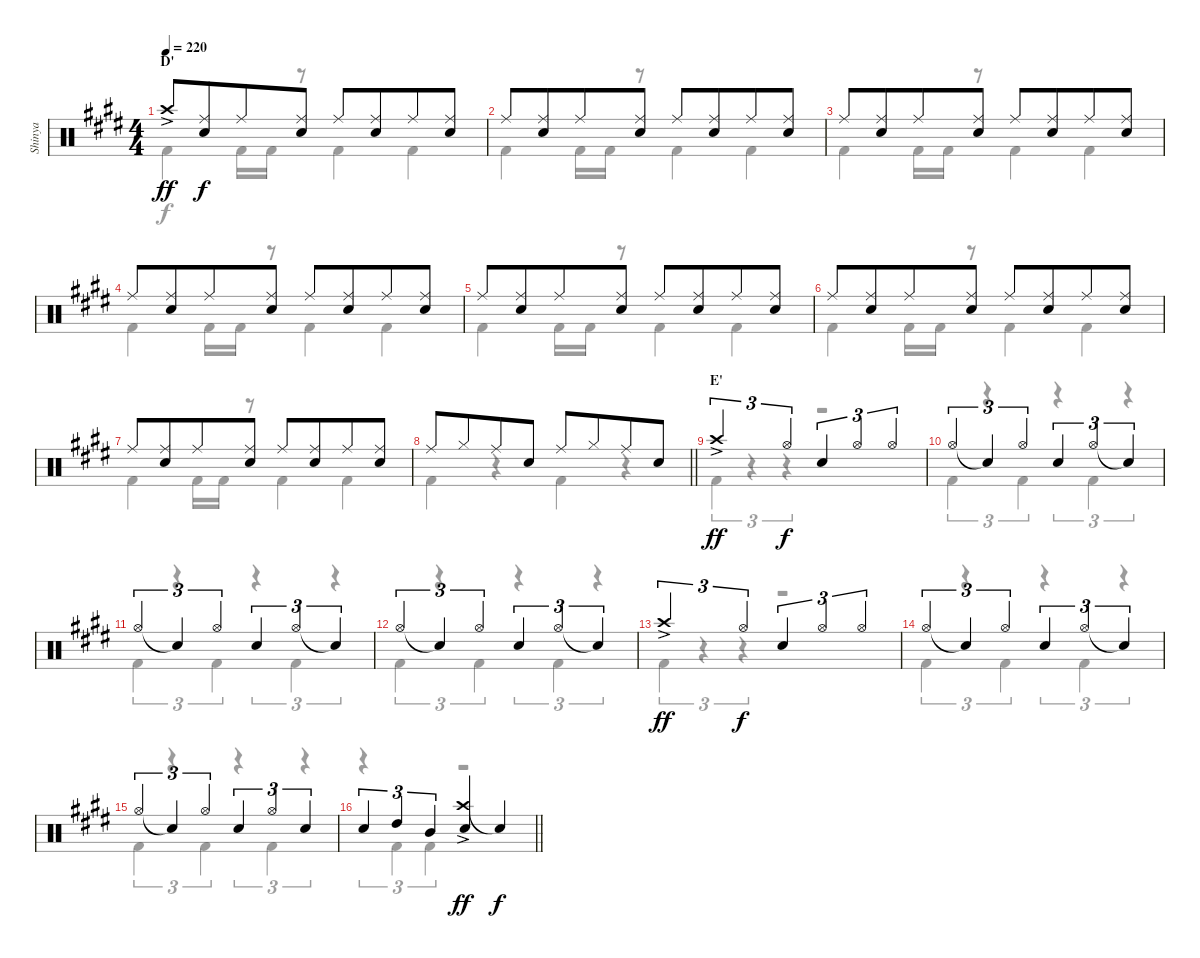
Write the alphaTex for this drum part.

\track ("Shinya" "Shinya") {instrument percussion}
\staff {score}
\articulation defaults
\voice
\ts (4 4)
\section ("" "D'")
\tempo 220
\clef neutral
\ks c#minor "Crash high (hit)"{ac}.8{dy ff}
("Ride (middle)" "Snare (hit) 2").8{dy f beam merge} "Ride (middle)".8 ("Ride (middle)" "Snare (hit) 2").8 "Ride (middle)".8 ("Ride (middle)" "Snare (hit) 2").8{beam merge} "Ride (middle)".8 ("Ride (middle)" "Snare (hit) 2").8 |
"Ride (middle)".8 ("Ride (middle)" "Snare (hit) 2").8{beam merge} "Ride (middle)".8 ("Ride (middle)" "Snare (hit) 2").8 "Ride (middle)".8 ("Ride (middle)" "Snare (hit) 2").8{beam merge} "Ride (middle)".8 ("Ride (middle)" "Snare (hit) 2").8 |
"Ride (middle)".8 ("Ride (middle)" "Snare (hit) 2").8{beam merge} "Ride (middle)".8 ("Ride (middle)" "Snare (hit) 2").8 "Ride (middle)".8 ("Ride (middle)" "Snare (hit) 2").8{beam merge} "Ride (middle)".8 ("Ride (middle)" "Snare (hit) 2").8 |
"Ride (middle)".8 ("Ride (middle)" "Snare (hit) 2").8{beam merge} "Ride (middle)".8 ("Ride (middle)" "Snare (hit) 2").8 "Ride (middle)".8 ("Ride (middle)" "Snare (hit) 2").8{beam merge} "Ride (middle)".8 ("Ride (middle)" "Snare (hit) 2").8 |
"Ride (middle)".8 ("Ride (middle)" "Snare (hit) 2").8{beam merge} "Ride (middle)".8 ("Ride (middle)" "Snare (hit) 2").8 "Ride (middle)".8 ("Ride (middle)" "Snare (hit) 2").8{beam merge} "Ride (middle)".8 ("Ride (middle)" "Snare (hit) 2").8 |
"Ride (middle)".8 ("Ride (middle)" "Snare (hit) 2").8{beam merge} "Ride (middle)".8 ("Ride (middle)" "Snare (hit) 2").8 "Ride (middle)".8 ("Ride (middle)" "Snare (hit) 2").8{beam merge} "Ride (middle)".8 ("Ride (middle)" "Snare (hit) 2").8 |
"Ride (middle)".8 ("Ride (middle)" "Snare (hit) 2").8{beam merge} "Ride (middle)".8 ("Ride (middle)" "Snare (hit) 2").8 "Ride (middle)".8 ("Ride (middle)" "Snare (hit) 2").8{beam merge} "Ride (middle)".8 ("Ride (middle)" "Snare (hit) 2").8 |
\barLineRight lightlight "Ride (middle)".8 "Hi-Hat (closed)".8{beam merge} "Ride (middle)".8 "Snare (hit) 2".8 "Ride (middle)".8 "Hi-Hat (closed)".8{beam merge} "Ride (middle)".8 "Snare (hit) 2".8
|
\section ("" "E'")
"Crash high (hit)"{ac}.2{tu (3 2) dy ff} "Hi-Hat (open)".4{tu (3 2) dy f} "Snare (hit) 2".4{tu (3 2)} "Hi-Hat (open)".4{tu (3 2)} "Hi-Hat (open)".4{tu (3 2)} |
"Hi-Hat (open)".4{tu (3 2)} "Snare (hit)"{t}.4{tu (3 2)} "Hi-Hat (open)".4{tu (3 2)} "Snare (hit) 2".4{tu (3 2)} "Hi-Hat (open)".4{tu (3 2)} "Snare (hit)"{t}.4{tu (3 2)} |
"Hi-Hat (open)".4{tu (3 2)} "Snare (hit)"{t}.4{tu (3 2)} "Hi-Hat (open)".4{tu (3 2)} "Snare (hit) 2".4{tu (3 2)} "Hi-Hat (open)".4{tu (3 2)} "Snare (hit)"{t}.4{tu (3 2)} |
"Hi-Hat (open)".4{tu (3 2)} "Snare (hit)"{t}.4{tu (3 2)} "Hi-Hat (open)".4{tu (3 2)} "Snare (hit) 2".4{tu (3 2)} "Hi-Hat (open)".4{tu (3 2)} "Snare (hit)"{t}.4{tu (3 2)} |
"Crash high (hit)"{ac}.2{tu (3 2) dy ff} "Hi-Hat (open)".4{tu (3 2) dy f} "Snare (hit) 2".4{tu (3 2)} "Hi-Hat (open)".4{tu (3 2)} "Hi-Hat (open)".4{tu (3 2)} |
"Hi-Hat (open)".4{tu (3 2)} "Snare (hit)"{t}.4{tu (3 2)} "Hi-Hat (open)".4{tu (3 2)} "Snare (hit) 2".4{tu (3 2)} "Hi-Hat (open)".4{tu (3 2)} "Snare (hit)"{t}.4{tu (3 2)} |
"Hi-Hat (open)".4{tu (3 2)} "Snare (hit)"{t}.4{tu (3 2)} "Hi-Hat (open)".4{tu (3 2)} "Snare (hit) 2".4{tu (3 2)} "Hi-Hat (open)".4{tu (3 2)} "Snare (hit) 2".4{tu (3 2)} |
\barLineRight lightlight "Snare (hit) 2".4{tu (3 2)} "High Tom (hit)".4{tu (3 2)} "Mid Tom (hit)".4{tu (3 2)}
("Crash high (hit)"{ac} "Snare (hit) 2").4{dy ff} "Snare (hit)"{t}.4{dy f}
\voice
\clef neutral
\ottava regular
\simile none
\ks c#minor "Kick (hit) 2".4{dy f} "Kick (hit) 2".16 "Kick (hit) 2".16
r.8 "Kick (hit) 2".4 "Kick (hit) 2".4 |
"Kick (hit) 2".4 "Kick (hit) 2".16 "Kick (hit) 2".16 r.8 "Kick (hit) 2".4 "Kick (hit) 2".4 |
"Kick (hit) 2".4 "Kick (hit) 2".16 "Kick (hit) 2".16 r.8 "Kick (hit) 2".4 "Kick (hit) 2".4 |
"Kick (hit) 2".4 "Kick (hit) 2".16 "Kick (hit) 2".16 r.8 "Kick (hit) 2".4 "Kick (hit) 2".4 |
"Kick (hit) 2".4 "Kick (hit) 2".16 "Kick (hit) 2".16 r.8 "Kick (hit) 2".4 "Kick (hit) 2".4 |
"Kick (hit) 2".4 "Kick (hit) 2".16 "Kick (hit) 2".16 r.8 "Kick (hit) 2".4 "Kick (hit) 2".4 |
"Kick (hit) 2".4 "Kick (hit) 2".16 "Kick (hit) 2".16 r.8 "Kick (hit) 2".4 "Kick (hit) 2".4 |
\barLineRight lightlight "Kick (hit) 2".4
r.4 "Kick (hit) 2".4 r.4 |
"Kick (hit) 2".4{tu (3 2)} r.4{tu (3 2)} r.4{tu (3 2)} r.2 |
"Kick (hit) 2".4{tu (3 2)} r.4{tu (3 2)} "Kick (hit) 2".4{tu (3 2)} r.4{tu (3 2)} "Kick (hit) 2".4{tu (3 2)} r.4{tu (3 2)} |
"Kick (hit) 2".4{tu (3 2)} r.4{tu (3 2)} "Kick (hit) 2".4{tu (3 2)} r.4{tu (3 2)} "Kick (hit) 2".4{tu (3 2)} r.4{tu (3 2)} |
"Kick (hit) 2".4{tu (3 2)} r.4{tu (3 2)} "Kick (hit) 2".4{tu (3 2)} r.4{tu (3 2)} "Kick (hit) 2".4{tu (3 2)} r.4{tu (3 2)} |
"Kick (hit) 2".4{tu (3 2)} r.4{tu (3 2)} r.4{tu (3 2)} r.2 |
"Kick (hit) 2".4{tu (3 2)} r.4{tu (3 2)} "Kick (hit) 2".4{tu (3 2)} r.4{tu (3 2)} "Kick (hit) 2".4{tu (3 2)} r.4{tu (3 2)} |
"Kick (hit) 2".4{tu (3 2)} r.4{tu (3 2)} "Kick (hit) 2".4{tu (3 2)} r.4{tu (3 2)} "Kick (hit) 2".4{tu (3 2)} r.4{tu (3 2)} |
\barLineRight lightlight
r.4{tu (3 2)} "Kick (hit) 2".4{tu (3 2)} "Kick (hit) 2".4{tu (3 2)} r.2
